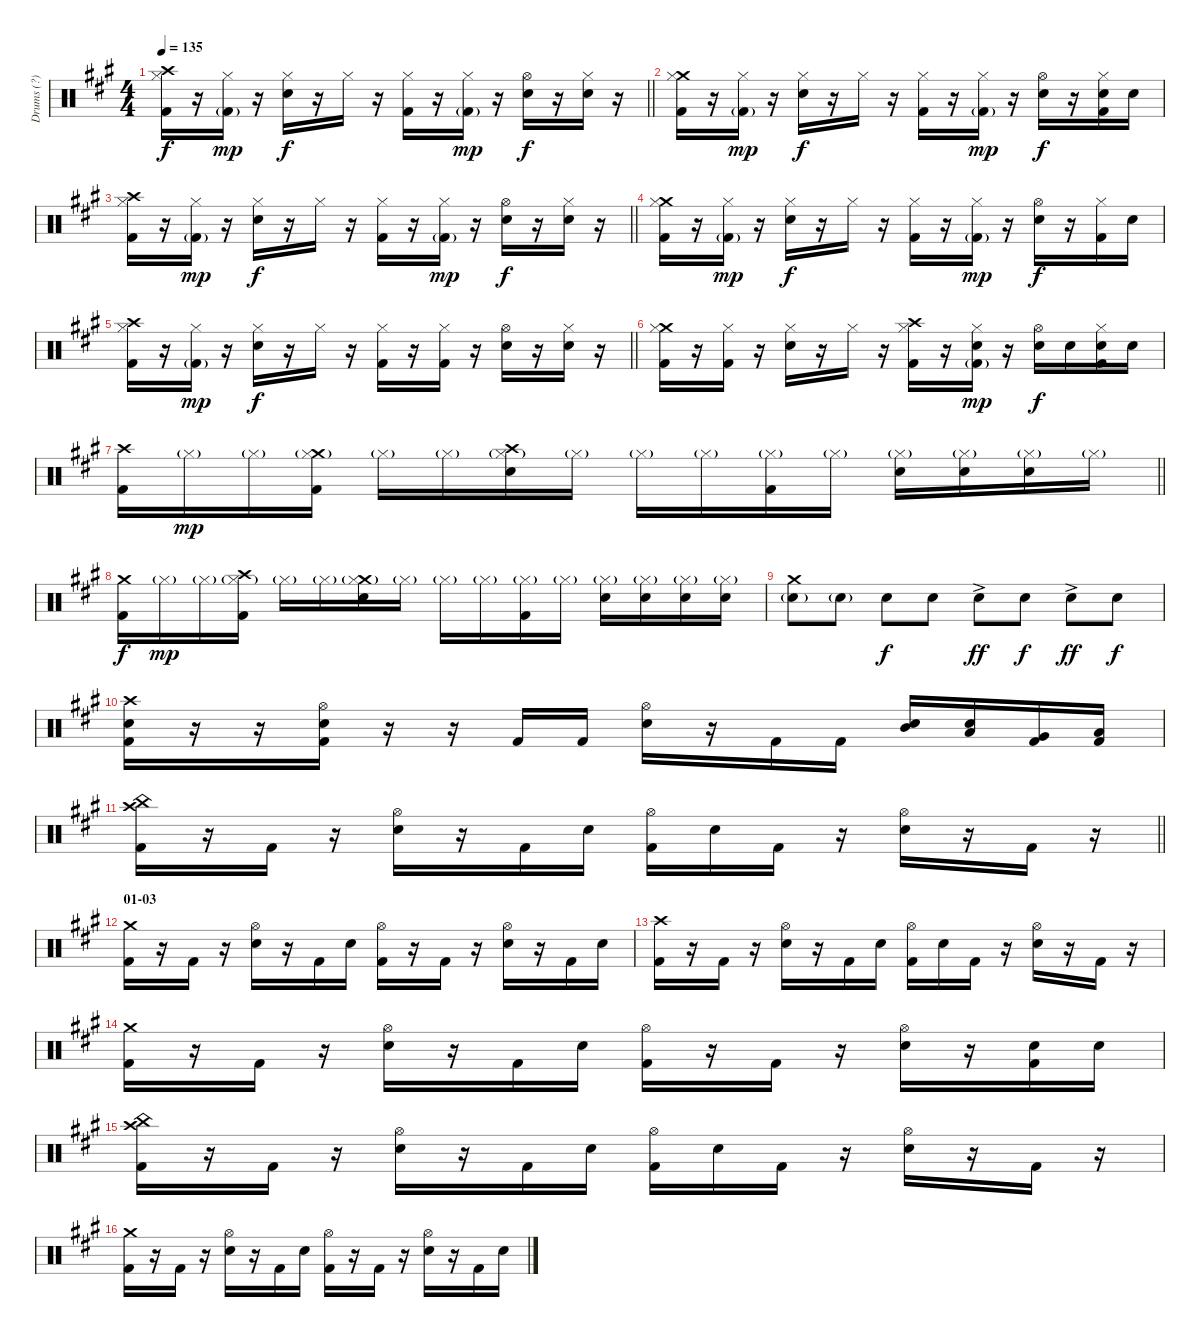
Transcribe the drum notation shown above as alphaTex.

\track ("Drums (?)" "Drums (?)") {instrument percussion}
\staff {score}
\articulation defaults
\ts (4 4)
\tempo 135
\clef neutral
\barLineRight lightlight
\ks a
("Crash high (hit)" "Hi-Hat (closed)" "Kick (hit) 2").16{dy f} r.16 ("Hi-Hat (closed)" "Kick (hit) 2"{g}).16{dy mp} r.16 ("Hi-Hat (closed)" "Electric Snare (hit)").16{dy f} r.16 "Hi-Hat (closed)".16 r.16 ("Hi-Hat (closed)" "Kick (hit) 2").16 r.16 ("Hi-Hat (closed)" "Kick (hit) 2"{g}).16{dy mp} r.16 ("Hi-Hat (open)" "Electric Snare (hit)").16{dy f} r.16 ("Hi-Hat (closed)" "Hand Clap (hit)").16 r.16 |
("Crash medium (hit)" "Hi-Hat (closed)" "Kick (hit) 2").16 r.16 ("Hi-Hat (closed)" "Kick (hit) 2"{g}).16{dy mp} r.16 ("Hi-Hat (closed)" "Electric Snare (hit)").16{dy f} r.16 "Hi-Hat (closed)".16 r.16 ("Hi-Hat (closed)" "Kick (hit) 2").16 r.16 ("Hi-Hat (closed)" "Kick (hit) 2"{g}).16{dy mp} r.16 ("Hi-Hat (open)" "Electric Snare (hit)").16{dy f} r.16 ("Hi-Hat (closed)" "Electric Snare (hit)" "Kick (hit) 2").16 "Electric Snare (hit)".16 |
\barLineRight lightlight
("Crash high (hit)" "Hi-Hat (closed)" "Kick (hit) 2").16 r.16 ("Hi-Hat (closed)" "Kick (hit) 2"{g}).16{dy mp} r.16 ("Hi-Hat (closed)" "Electric Snare (hit)").16{dy f} r.16 "Hi-Hat (closed)".16 r.16 ("Hi-Hat (closed)" "Kick (hit) 2").16 r.16 ("Hi-Hat (closed)" "Kick (hit) 2"{g}).16{dy mp} r.16 ("Hi-Hat (open)" "Electric Snare (hit)").16{dy f} r.16 ("Hi-Hat (closed)" "Hand Clap (hit)").16 r.16 |
("Crash medium (hit)" "Hi-Hat (closed)" "Kick (hit) 2").16 r.16 ("Hi-Hat (closed)" "Kick (hit) 2"{g}).16{dy mp} r.16 ("Hi-Hat (closed)" "Electric Snare (hit)").16{dy f} r.16 "Hi-Hat (closed)".16 r.16 ("Hi-Hat (closed)" "Kick (hit) 2").16 r.16 ("Hi-Hat (closed)" "Kick (hit) 2"{g}).16{dy mp} r.16 ("Hi-Hat (open)" "Electric Snare (hit)").16{dy f} r.16 ("Hi-Hat (closed)" "Kick (hit) 2").16 "Hand Clap (hit)".16 |
\barLineRight lightlight
("Crash high (hit)" "Hi-Hat (closed)" "Kick (hit) 2").16 r.16 ("Hi-Hat (closed)" "Kick (hit) 2"{g}).16{dy mp} r.16 ("Hi-Hat (closed)" "Electric Snare (hit)").16{dy f} r.16 "Hi-Hat (closed)".16 r.16 ("Hi-Hat (closed)" "Kick (hit) 2").16 r.16 ("Hi-Hat (closed)" "Kick (hit) 2").16 r.16 ("Hi-Hat (open)" "Electric Snare (hit)").16 r.16 ("Hi-Hat (closed)" "Hand Clap (hit)").16 r.16 |
("Crash medium (hit)" "Hi-Hat (closed)" "Kick (hit) 2").16 r.16 ("Hi-Hat (closed)" "Kick (hit) 2").16 r.16 ("Hi-Hat (closed)" "Electric Snare (hit)").16 r.16 "Hi-Hat (closed)".16 r.16 ("Crash high (hit)" "Hi-Hat (closed)" "Kick (hit) 2").16 r.16 ("Hi-Hat (closed)" "Electric Snare (hit)" "Kick (hit) 2"{g}).16{dy mp} r.16 ("Hi-Hat (open)" "Electric Snare (hit)").16{dy f} "Electric Snare (hit)".16 ("Hi-Hat (closed)" "Electric Snare (hit)" "Kick (hit) 2").16 "Electric Snare (hit)".16 |
\barLineRight lightlight
("Crash high (hit)" "Kick (hit) 2").16 "Hi-Hat (closed)"{g}.16{dy mp} "Hi-Hat (closed)"{g}.16 ("Crash medium (hit)" "Hi-Hat (closed)"{g} "Kick (hit) 2").16 "Hi-Hat (closed)"{g}.16 "Hi-Hat (closed)"{g}.16 ("Crash high (hit)" "Hi-Hat (closed)"{g} "Electric Snare (hit)").16 "Hi-Hat (closed)"{g}.16 "Hi-Hat (closed)"{g}.16 "Hi-Hat (closed)"{g}.16 ("Hi-Hat (closed)"{g} "Kick (hit) 2").16 "Hi-Hat (closed)"{g}.16 ("Hi-Hat (closed)"{g} "Electric Snare (hit)").16 ("Hi-Hat (closed)"{g} "Electric Snare (hit)").16 ("Hi-Hat (closed)"{g} "Electric Snare (hit)").16 "Hi-Hat (closed)"{g}.16 |
("Crash medium (hit)" "Kick (hit) 2").16{dy f} "Hi-Hat (closed)"{g}.16{dy mp} "Hi-Hat (closed)"{g}.16 ("Crash high (hit)" "Hi-Hat (closed)"{g} "Kick (hit) 2").16 "Hi-Hat (closed)"{g}.16 "Hi-Hat (closed)"{g}.16 ("Crash medium (hit)" "Hi-Hat (closed)"{g} "Electric Snare (hit)").16 "Hi-Hat (closed)"{g}.16 "Hi-Hat (closed)"{g}.16 "Hi-Hat (closed)"{g}.16 ("Hi-Hat (closed)"{g} "Kick (hit) 2").16 "Hi-Hat (closed)"{g}.16 ("Hi-Hat (closed)"{g} "Electric Snare (hit)").16 ("Hi-Hat (closed)"{g} "Electric Snare (hit)").16 ("Hi-Hat (closed)"{g} "Electric Snare (hit)").16 ("Hi-Hat (closed)"{g} "Electric Snare (hit)").16 |
("Crash medium (hit)" "Electric Snare (hit)"{g}).8 "Electric Snare (hit)"{g}.8 "Electric Snare (hit)".8{dy f} "Electric Snare (hit)".8 "Electric Snare (hit)"{ac}.8{dy ff} "Electric Snare (hit)".8{dy f} "Electric Snare (hit)"{ac}.8{dy ff} "Electric Snare (hit)".8{dy f} |
("Crash high (hit)" "Electric Snare (hit)" "Kick (hit) 2").16 r.16 r.16 ("Hi-Hat (open)" "Electric Snare (hit)" "Kick (hit) 2").16 r.16 r.16 "Kick (hit) 2".16 "Kick (hit) 2".16 ("Hi-Hat (open)" "Electric Snare (hit)").16 r.16 "Kick (hit) 2".16 "Kick (hit) 2".16 ("Mid Tom (hit)" "Electric Snare (hit)").16 ("Low Tom (hit)" "Hand Clap (hit)").16 ("Very Low Tom (hit)" "Kick (hit) 2").16 ("Low Floor Tom (hit)" "Kick (hit) 2").16 |
\barLineRight lightlight
("Crash high (hit)" "China (hit)" "Kick (hit) 2").16 r.16 "Kick (hit) 2".16 r.16 ("Hi-Hat (open)" "Electric Snare (hit)").16 r.16 "Kick (hit) 2".16 "Electric Snare (hit)".16 ("Hi-Hat (open)" "Kick (hit) 2").16 "Electric Snare (hit)".16 "Kick (hit) 2".16 r.16 ("Hi-Hat (open)" "Electric Snare (hit)").16 r.16 "Kick (hit) 2".16 r.16 |
\section ("" "01-03")
("Crash medium (hit)" "Kick (hit) 2").16 r.16 "Kick (hit) 2".16 r.16 ("Hi-Hat (open)" "Electric Snare (hit)").16 r.16 "Kick (hit) 2".16 "Electric Snare (hit)".16 ("Hi-Hat (open)" "Kick (hit) 2").16 r.16 "Kick (hit) 2".16 r.16 ("Hi-Hat (open)" "Electric Snare (hit)").16 r.16 "Kick (hit) 2".16 "Electric Snare (hit)".16 |
("Crash high (hit)" "Kick (hit) 2").16 r.16 "Kick (hit) 2".16 r.16 ("Hi-Hat (open)" "Electric Snare (hit)").16 r.16 "Kick (hit) 2".16 "Electric Snare (hit)".16 ("Hi-Hat (open)" "Kick (hit) 2").16 "Electric Snare (hit)".16 "Kick (hit) 2".16 r.16 ("Hi-Hat (open)" "Electric Snare (hit)").16 r.16 "Kick (hit) 2".16 r.16 |
("Crash medium (hit)" "Kick (hit) 2").16 r.16 "Kick (hit) 2".16 r.16 ("Hi-Hat (open)" "Electric Snare (hit)").16 r.16 "Kick (hit) 2".16 "Electric Snare (hit)".16 ("Hi-Hat (open)" "Kick (hit) 2").16 r.16 "Kick (hit) 2".16 r.16 ("Hi-Hat (open)" "Electric Snare (hit)").16 r.16 ("Electric Snare (hit)" "Kick (hit) 2").16 "Electric Snare (hit)".16 |
("Crash high (hit)" "China (hit)" "Kick (hit) 2").16 r.16 "Kick (hit) 2".16 r.16 ("Hi-Hat (open)" "Electric Snare (hit)").16 r.16 "Kick (hit) 2".16 "Electric Snare (hit)".16 ("Hi-Hat (open)" "Kick (hit) 2").16 "Electric Snare (hit)".16 "Kick (hit) 2".16 r.16 ("Hi-Hat (open)" "Electric Snare (hit)").16 r.16 "Kick (hit) 2".16 r.16 |
("Crash medium (hit)" "Kick (hit) 2").16 r.16 "Kick (hit) 2".16 r.16 ("Hi-Hat (open)" "Electric Snare (hit)").16 r.16 "Kick (hit) 2".16 "Electric Snare (hit)".16 ("Hi-Hat (open)" "Kick (hit) 2").16 r.16 "Kick (hit) 2".16 r.16 ("Hi-Hat (open)" "Electric Snare (hit)").16 r.16 "Kick (hit) 2".16 "Electric Snare (hit)".16
